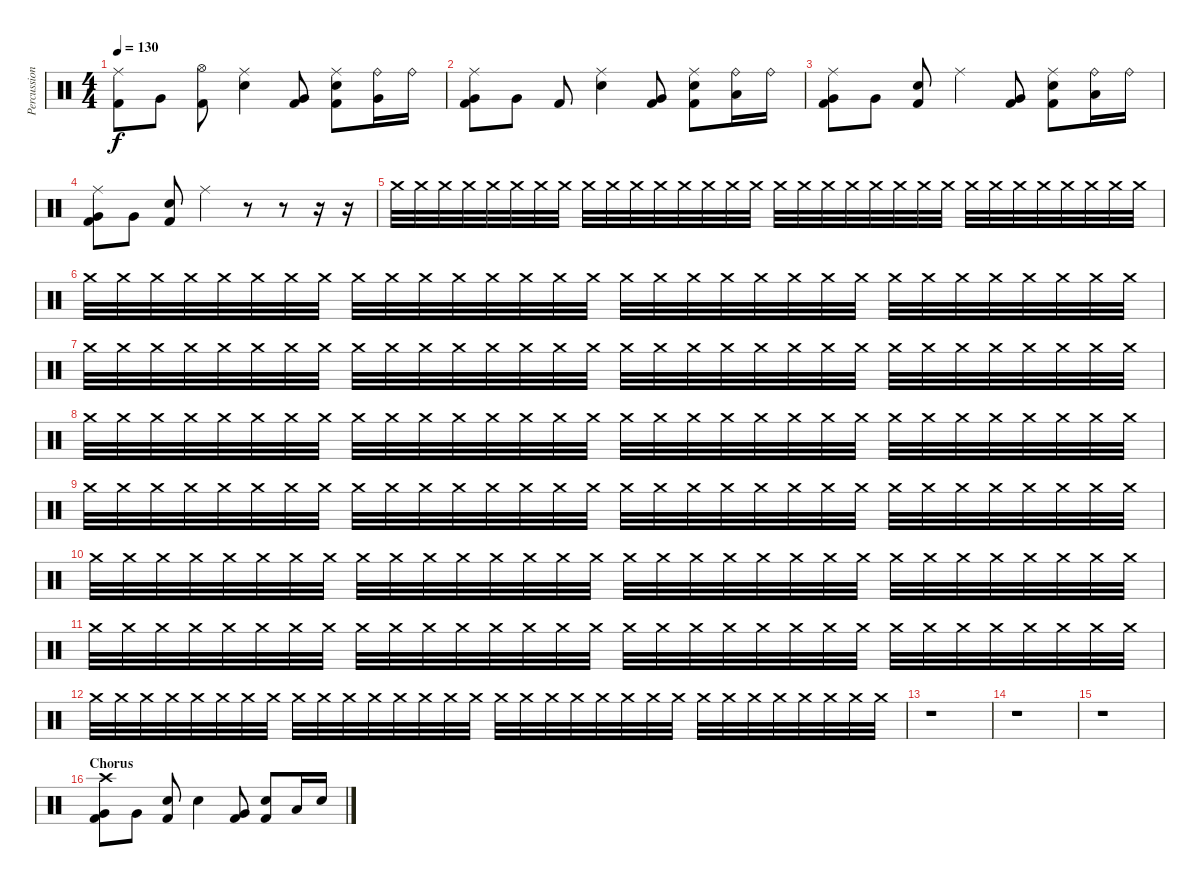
\track ("Percussion" "Percussion") {instrument percussion}
\staff {score}
\articulation defaults
\ts (4 4)
\tempo 130
\clef neutral
\ks c
("Ride (middle)" "Kick (hit) 2").8{dy f volume 13} "Very Low Tom (hit)".8 ("Hi-Hat (open)" "Kick (hit) 2").8 ("Ride (middle)" "Electric Snare (hit)").4 ("Very Low Tom (hit)" "Kick (hit) 2").8 ("Ride (middle)" "Electric Snare (hit)" "Kick (hit) 2").8 ("Ride (bell)" "Very Low Tom (hit)").16 "Ride (bell)".16 |
("Ride (middle)" "Very Low Tom (hit)" "Kick (hit) 2").8 "Very Low Tom (hit)".8 "Kick (hit) 2".8 ("Ride (middle)" "Electric Snare (hit)").4 ("Very Low Tom (hit)" "Kick (hit) 2").8 ("Ride (middle)" "Electric Snare (hit)" "Kick (hit) 2").8 ("Ride (bell)" "Low Floor Tom (hit)").16 "Ride (bell)".16 |
("Ride (middle)" "Very Low Tom (hit)" "Kick (hit) 2").8 "Very Low Tom (hit)".8 ("Electric Snare (hit)" "Kick (hit) 2").8 "Ride (middle)".4 ("Very Low Tom (hit)" "Kick (hit) 2").8 ("Ride (middle)" "Electric Snare (hit)" "Kick (hit) 2").8 ("Ride (bell)" "Low Floor Tom (hit)").16 "Ride (bell)".16 |
("Ride (middle)" "Very Low Tom (hit)" "Kick (hit) 2").8 "Very Low Tom (hit)".8 ("Electric Snare (hit)" "Kick (hit) 2").8 "Ride (middle)".4 r.8 r.8 r.16 r.16 |
"Crash medium (hit)".32{volume 0} "Crash medium (hit)".32{volume 7} "Crash medium (hit)".32 "Crash medium (hit)".32 "Crash medium (hit)".32 "Crash medium (hit)".32 "Crash medium (hit)".32 "Crash medium (hit)".32 "Crash medium (hit)".32 "Crash medium (hit)".32 "Crash medium (hit)".32 "Crash medium (hit)".32 "Crash medium (hit)".32 "Crash medium (hit)".32 "Crash medium (hit)".32 "Crash medium (hit)".32 "Crash medium (hit)".32 "Crash medium (hit)".32 "Crash medium (hit)".32 "Crash medium (hit)".32 "Crash medium (hit)".32 "Crash medium (hit)".32 "Crash medium (hit)".32 "Crash medium (hit)".32 "Crash medium (hit)".32 "Crash medium (hit)".32 "Crash medium (hit)".32 "Crash medium (hit)".32 "Crash medium (hit)".32 "Crash medium (hit)".32 "Crash medium (hit)".32 "Crash medium (hit)".32 |
"Crash medium (hit)".32{volume 0} "Crash medium (hit)".32 "Crash medium (hit)".32 "Crash medium (hit)".32 "Crash medium (hit)".32 "Crash medium (hit)".32 "Crash medium (hit)".32 "Crash medium (hit)".32 "Crash medium (hit)".32 "Crash medium (hit)".32 "Crash medium (hit)".32 "Crash medium (hit)".32 "Crash medium (hit)".32 "Crash medium (hit)".32 "Crash medium (hit)".32 "Crash medium (hit)".32 "Crash medium (hit)".32 "Crash medium (hit)".32 "Crash medium (hit)".32 "Crash medium (hit)".32 "Crash medium (hit)".32 "Crash medium (hit)".32 "Crash medium (hit)".32 "Crash medium (hit)".32 "Crash medium (hit)".32 "Crash medium (hit)".32 "Crash medium (hit)".32 "Crash medium (hit)".32 "Crash medium (hit)".32 "Crash medium (hit)".32 "Crash medium (hit)".32 "Crash medium (hit)".32 |
"Crash medium (hit)".32{volume 0} "Crash medium (hit)".32{volume 7} "Crash medium (hit)".32 "Crash medium (hit)".32 "Crash medium (hit)".32 "Crash medium (hit)".32 "Crash medium (hit)".32 "Crash medium (hit)".32 "Crash medium (hit)".32 "Crash medium (hit)".32 "Crash medium (hit)".32 "Crash medium (hit)".32 "Crash medium (hit)".32 "Crash medium (hit)".32 "Crash medium (hit)".32 "Crash medium (hit)".32 "Crash medium (hit)".32 "Crash medium (hit)".32 "Crash medium (hit)".32 "Crash medium (hit)".32 "Crash medium (hit)".32 "Crash medium (hit)".32 "Crash medium (hit)".32 "Crash medium (hit)".32 "Crash medium (hit)".32 "Crash medium (hit)".32 "Crash medium (hit)".32 "Crash medium (hit)".32 "Crash medium (hit)".32 "Crash medium (hit)".32 "Crash medium (hit)".32 "Crash medium (hit)".32 |
"Crash medium (hit)".32{volume 0} "Crash medium (hit)".32 "Crash medium (hit)".32 "Crash medium (hit)".32 "Crash medium (hit)".32 "Crash medium (hit)".32 "Crash medium (hit)".32 "Crash medium (hit)".32 "Crash medium (hit)".32 "Crash medium (hit)".32 "Crash medium (hit)".32 "Crash medium (hit)".32 "Crash medium (hit)".32 "Crash medium (hit)".32 "Crash medium (hit)".32 "Crash medium (hit)".32 "Crash medium (hit)".32 "Crash medium (hit)".32 "Crash medium (hit)".32 "Crash medium (hit)".32 "Crash medium (hit)".32 "Crash medium (hit)".32 "Crash medium (hit)".32 "Crash medium (hit)".32 "Crash medium (hit)".32 "Crash medium (hit)".32 "Crash medium (hit)".32 "Crash medium (hit)".32 "Crash medium (hit)".32 "Crash medium (hit)".32 "Crash medium (hit)".32 "Crash medium (hit)".32 |
"Crash medium (hit)".32{volume 0} "Crash medium (hit)".32{volume 7} "Crash medium (hit)".32 "Crash medium (hit)".32 "Crash medium (hit)".32 "Crash medium (hit)".32 "Crash medium (hit)".32 "Crash medium (hit)".32 "Crash medium (hit)".32 "Crash medium (hit)".32 "Crash medium (hit)".32 "Crash medium (hit)".32 "Crash medium (hit)".32 "Crash medium (hit)".32 "Crash medium (hit)".32 "Crash medium (hit)".32 "Crash medium (hit)".32 "Crash medium (hit)".32 "Crash medium (hit)".32 "Crash medium (hit)".32 "Crash medium (hit)".32 "Crash medium (hit)".32 "Crash medium (hit)".32 "Crash medium (hit)".32 "Crash medium (hit)".32 "Crash medium (hit)".32 "Crash medium (hit)".32 "Crash medium (hit)".32 "Crash medium (hit)".32 "Crash medium (hit)".32 "Crash medium (hit)".32 "Crash medium (hit)".32 |
"Crash medium (hit)".32{volume 0} "Crash medium (hit)".32 "Crash medium (hit)".32 "Crash medium (hit)".32 "Crash medium (hit)".32 "Crash medium (hit)".32 "Crash medium (hit)".32 "Crash medium (hit)".32 "Crash medium (hit)".32 "Crash medium (hit)".32 "Crash medium (hit)".32 "Crash medium (hit)".32 "Crash medium (hit)".32 "Crash medium (hit)".32 "Crash medium (hit)".32 "Crash medium (hit)".32 "Crash medium (hit)".32 "Crash medium (hit)".32 "Crash medium (hit)".32 "Crash medium (hit)".32 "Crash medium (hit)".32 "Crash medium (hit)".32 "Crash medium (hit)".32 "Crash medium (hit)".32 "Crash medium (hit)".32 "Crash medium (hit)".32 "Crash medium (hit)".32 "Crash medium (hit)".32 "Crash medium (hit)".32 "Crash medium (hit)".32 "Crash medium (hit)".32 "Crash medium (hit)".32 |
"Crash medium (hit)".32{volume 0} "Crash medium (hit)".32{volume 7} "Crash medium (hit)".32 "Crash medium (hit)".32 "Crash medium (hit)".32 "Crash medium (hit)".32 "Crash medium (hit)".32 "Crash medium (hit)".32 "Crash medium (hit)".32 "Crash medium (hit)".32 "Crash medium (hit)".32 "Crash medium (hit)".32 "Crash medium (hit)".32 "Crash medium (hit)".32 "Crash medium (hit)".32 "Crash medium (hit)".32 "Crash medium (hit)".32 "Crash medium (hit)".32 "Crash medium (hit)".32 "Crash medium (hit)".32 "Crash medium (hit)".32 "Crash medium (hit)".32 "Crash medium (hit)".32 "Crash medium (hit)".32 "Crash medium (hit)".32 "Crash medium (hit)".32 "Crash medium (hit)".32 "Crash medium (hit)".32 "Crash medium (hit)".32 "Crash medium (hit)".32 "Crash medium (hit)".32 "Crash medium (hit)".32 |
"Crash medium (hit)".32{volume 0} "Crash medium (hit)".32 "Crash medium (hit)".32 "Crash medium (hit)".32 "Crash medium (hit)".32 "Crash medium (hit)".32 "Crash medium (hit)".32 "Crash medium (hit)".32 "Crash medium (hit)".32 "Crash medium (hit)".32 "Crash medium (hit)".32 "Crash medium (hit)".32 "Crash medium (hit)".32 "Crash medium (hit)".32 "Crash medium (hit)".32 "Crash medium (hit)".32 "Crash medium (hit)".32 "Crash medium (hit)".32 "Crash medium (hit)".32 "Crash medium (hit)".32 "Crash medium (hit)".32 "Crash medium (hit)".32 "Crash medium (hit)".32 "Crash medium (hit)".32 "Crash medium (hit)".32 "Crash medium (hit)".32 "Crash medium (hit)".32 "Crash medium (hit)".32 "Crash medium (hit)".32 "Crash medium (hit)".32 "Crash medium (hit)".32 "Crash medium (hit)".32 |
r.1 |
r.1 |
r.1 |
\section ("" "Chorus")
("Crash high (hit)" "Very Low Tom (hit)" "Kick (hit) 2").8{volume 16} "Very Low Tom (hit)".8 ("Electric Snare (hit)" "Kick (hit) 2").8 "Electric Snare (hit)".4 ("Very Low Tom (hit)" "Kick (hit) 2").8 ("Electric Snare (hit)" "Kick (hit) 2").8 "Low Floor Tom (hit)".16 "Electric Snare (hit)".16
